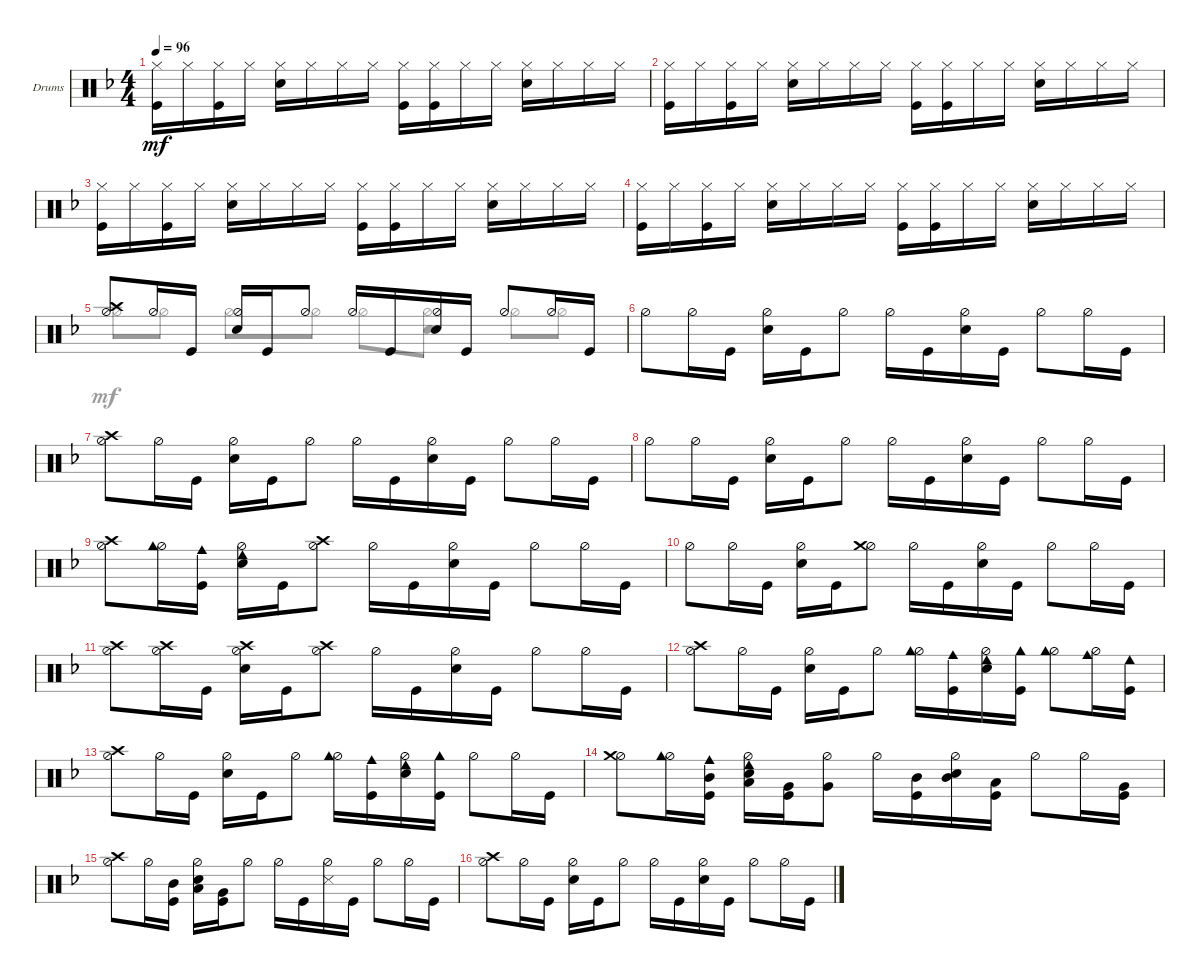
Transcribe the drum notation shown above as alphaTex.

\defaultSystemsLayout 4
\bracketExtendMode groupsimilarinstruments
\firstSystemTrackNameOrientation horizontal
\otherSystemsTrackNameOrientation horizontal
\track ("Drumkit" "Drums") {instrument percussion}
\staff {score}
\articulation defaults
\voice
\ts (4 4)
\tempo 96
\clef neutral
\scale
0.333333
\ks dminor
("Hi-Hat (closed)" "Kick (hit)").16{dy mf} "Hi-Hat (closed)".16 ("Hi-Hat (closed)" "Kick (hit)").16 "Hi-Hat (closed)".16 ("Hi-Hat (closed)" "Snare (hit) 2").16 "Hi-Hat (closed)".16 "Hi-Hat (closed)".16 "Hi-Hat (closed)".16 ("Kick (hit)" "Hi-Hat (closed)").16 ("Kick (hit)" "Hi-Hat (closed)").16 "Hi-Hat (closed)".16 "Hi-Hat (closed)".16 ("Hi-Hat (closed)" "Snare (hit) 2").16 "Hi-Hat (closed)".16 "Hi-Hat (closed)".16 "Hi-Hat (closed)".16 |
\scale
0.333333 ("Hi-Hat (closed)" "Kick (hit)").16 "Hi-Hat (closed)".16 ("Hi-Hat (closed)" "Kick (hit)").16 "Hi-Hat (closed)".16 ("Hi-Hat (closed)" "Snare (hit) 2").16 "Hi-Hat (closed)".16 "Hi-Hat (closed)".16 "Hi-Hat (closed)".16 ("Kick (hit)" "Hi-Hat (closed)").16 ("Kick (hit)" "Hi-Hat (closed)").16 "Hi-Hat (closed)".16 "Hi-Hat (closed)".16 ("Hi-Hat (closed)" "Snare (hit) 2").16 "Hi-Hat (closed)".16 "Hi-Hat (closed)".16 "Hi-Hat (closed)".16 |
\scale
0.333333 ("Hi-Hat (closed)" "Kick (hit)").16 "Hi-Hat (closed)".16 ("Hi-Hat (closed)" "Kick (hit)").16 "Hi-Hat (closed)".16 ("Hi-Hat (closed)" "Snare (hit) 2").16 "Hi-Hat (closed)".16 "Hi-Hat (closed)".16 "Hi-Hat (closed)".16 ("Kick (hit)" "Hi-Hat (closed)").16 ("Kick (hit)" "Hi-Hat (closed)").16 "Hi-Hat (closed)".16 "Hi-Hat (closed)".16 ("Hi-Hat (closed)" "Snare (hit) 2").16 "Hi-Hat (closed)".16 "Hi-Hat (closed)".16 "Hi-Hat (closed)".16 |
\scale
0.333333 ("Hi-Hat (closed)" "Kick (hit)").16 "Hi-Hat (closed)".16 ("Hi-Hat (closed)" "Kick (hit)").16 "Hi-Hat (closed)".16 ("Hi-Hat (closed)" "Snare (hit) 2").16 "Hi-Hat (closed)".16 "Hi-Hat (closed)".16 "Hi-Hat (closed)".16 ("Kick (hit)" "Hi-Hat (closed)").16 ("Kick (hit)" "Hi-Hat (closed)").16 "Hi-Hat (closed)".16 "Hi-Hat (closed)".16 ("Hi-Hat (closed)" "Snare (hit) 2").16 "Hi-Hat (closed)".16 "Hi-Hat (closed)".16 "Hi-Hat (closed)".16 |
\scale
0.333333 ("Hi-Hat (half)" "Crash high (hit)").8 "Hi-Hat (half)".16 "Kick (hit)".16 ("Snare (hit) 2" "Hi-Hat (half)").16 "Kick (hit)".16 "Hi-Hat (half)".8 "Hi-Hat (half)".16 "Kick (hit)".16 ("Snare (hit) 2" "Hi-Hat (half)").16 "Kick (hit)".16 "Hi-Hat (half)".8 "Hi-Hat (half)".16 "Kick (hit)".16 |
\scale
0.333333 "Hi-Hat (half)".8 "Hi-Hat (half)".16 "Kick (hit)".16 ("Snare (hit) 2" "Hi-Hat (half)").16 "Kick (hit)".16 "Hi-Hat (half)".8 "Hi-Hat (half)".16 "Kick (hit)".16 ("Snare (hit) 2" "Hi-Hat (half)").16 "Kick (hit)".16 "Hi-Hat (half)".8 "Hi-Hat (half)".16 "Kick (hit)".16 |
\scale
0.333333 ("Hi-Hat (half)" "Crash high (hit)").8 "Hi-Hat (half)".16 "Kick (hit)".16 ("Snare (hit) 2" "Hi-Hat (half)").16 "Kick (hit)".16 "Hi-Hat (half)".8 "Hi-Hat (half)".16 "Kick (hit)".16 ("Snare (hit) 2" "Hi-Hat (half)").16 "Kick (hit)".16 "Hi-Hat (half)".8 "Hi-Hat (half)".16 "Kick (hit)".16 |
\scale
0.333333 "Hi-Hat (half)".8 "Hi-Hat (half)".16 "Kick (hit)".16 ("Snare (hit) 2" "Hi-Hat (half)").16 "Kick (hit)".16 "Hi-Hat (half)".8 "Hi-Hat (half)".16 "Kick (hit)".16 ("Snare (hit) 2" "Hi-Hat (half)").16 "Kick (hit)".16 "Hi-Hat (half)".8 "Hi-Hat (half)".16 "Kick (hit)".16 |
\scale
0.333333 ("Hi-Hat (half)" "Crash high (hit)").8 ("Hi-Hat (half)" "Cowbell high (hit)").16 ("Kick (hit)" "Cowbell medium (hit)").16 ("Snare (hit) 2" "Hi-Hat (half)" "Cowbell low (hit)").16 "Kick (hit)".16 ("Hi-Hat (half)" "Crash high (hit)").8 "Hi-Hat (half)".16 "Kick (hit)".16 ("Snare (hit) 2" "Hi-Hat (half)").16 "Kick (hit)".16 "Hi-Hat (half)".8 "Hi-Hat (half)".16 "Kick (hit)".16 |
\scale
0.333333 "Hi-Hat (half)".8 "Hi-Hat (half)".16 "Kick (hit)".16 ("Snare (hit) 2" "Hi-Hat (half)").16 "Kick (hit)".16 ("Hi-Hat (half)" "Crash medium (hit)").8 "Hi-Hat (half)".16 "Kick (hit)".16 ("Snare (hit) 2" "Hi-Hat (half)").16 "Kick (hit)".16 "Hi-Hat (half)".8 "Hi-Hat (half)".16 "Kick (hit)".16 |
\scale
0.333333 ("Hi-Hat (half)" "Crash high (hit)").8 ("Hi-Hat (half)" "Crash high (hit)").16 "Kick (hit)".16 ("Snare (hit) 2" "Hi-Hat (half)" "Crash high (hit)").16 "Kick (hit)".16 ("Hi-Hat (half)" "Crash high (hit)").8 "Hi-Hat (half)".16 "Kick (hit)".16 ("Snare (hit) 2" "Hi-Hat (half)").16 "Kick (hit)".16 "Hi-Hat (half)".8 "Hi-Hat (half)".16 "Kick (hit)".16 |
\scale
0.333333 ("Hi-Hat (half)" "Crash high (hit)").8 "Hi-Hat (half)".16 "Kick (hit)".16 ("Snare (hit) 2" "Hi-Hat (half)").16 "Kick (hit)".16 "Hi-Hat (half)".8 ("Hi-Hat (half)" "Cowbell high (hit)").16 ("Kick (hit)" "Cowbell medium (hit)").16 ("Snare (hit) 2" "Hi-Hat (half)" "Cowbell low (hit)").16 ("Kick (hit)" "Cowbell high (hit)").16 ("Hi-Hat (half)" "Cowbell high (hit)").8 ("Hi-Hat (half)" "Cowbell medium (hit)").16 ("Kick (hit)" "Cowbell low (hit)").16 |
\scale
0.333333 ("Hi-Hat (half)" "Crash high (hit)").8 "Hi-Hat (half)".16 "Kick (hit)".16 ("Snare (hit) 2" "Hi-Hat (half)").16 "Kick (hit)".16 "Hi-Hat (half)".8 ("Hi-Hat (half)" "Cowbell high (hit)").16 ("Kick (hit)" "Cowbell medium (hit)").16 ("Snare (hit) 2" "Hi-Hat (half)" "Cowbell low (hit)").16 ("Kick (hit)" "Cowbell high (hit)").16 "Hi-Hat (half)".8 "Hi-Hat (half)".16 "Kick (hit)".16 |
\scale
0.333333 ("Hi-Hat (half)" "Crash medium (hit)").8 ("Hi-Hat (half)" "Cowbell high (hit)").16 ("Kick (hit)" "Cowbell medium (hit)" "Mid Tom (hit)").16 ("Snare (hit) 2" "Hi-Hat (half)" "Cowbell low (hit)" "Low Tom (hit)").16 ("Kick (hit)" "Very Low Tom (hit)").16 ("Hi-Hat (half)" "Very Low Tom (hit)").8 "Hi-Hat (half)".16 ("Kick (hit)" "Mid Tom (hit)").16 ("Snare (hit) 2" "Hi-Hat (half)" "Mid Tom (hit)").16 ("Kick (hit)" "Low Tom (hit)").16 "Hi-Hat (half)".8 "Hi-Hat (half)".16 ("Kick (hit)" "Very Low Tom (hit)").16 |
\scale
0.333333 ("Hi-Hat (half)" "Crash high (hit)").8 "Hi-Hat (half)".16 ("Kick (hit)" "Mid Tom (hit)").16 ("Snare (hit) 2" "Hi-Hat (half)" "Low Tom (hit)").16 ("Kick (hit)" "Very Low Tom (hit)").16 "Hi-Hat (half)".8 "Hi-Hat (half)".16 "Kick (hit)".16 ("Snare (side stick) 3" "Hi-Hat (half)").16 "Kick (hit)".16 "Hi-Hat (half)".8 "Hi-Hat (half)".16 "Kick (hit)".16 |
\scale
0.333333 ("Hi-Hat (half)" "Crash high (hit)").8 "Hi-Hat (half)".16 "Kick (hit)".16 ("Snare (hit) 2" "Hi-Hat (half)").16 "Kick (hit)".16 "Hi-Hat (half)".8 "Hi-Hat (half)".16 "Kick (hit)".16 ("Snare (hit) 2" "Hi-Hat (half)").16 "Kick (hit)".16 "Hi-Hat (half)".8 "Hi-Hat (half)".16 "Kick (hit)".16
\voice
\clef neutral
\ottava regular
\simile none
\scale
0.333333
\ks dminor
|
\scale
0.333333 |
\scale
0.333333 |
\scale
0.333333 |
\scale
0.333333 "Hi-Hat (half)".8 "Hi-Hat (half)".8 "Hi-Hat (half)".8 "Hi-Hat (half)".8 "Hi-Hat (half)".8 ("Hi-Hat (half)" "Snare (hit) 2").8 "Hi-Hat (half)".8 "Hi-Hat (half)".8 |
\scale
0.333333 |
\scale
0.333333 |
\scale
0.333333 |
\scale
0.333333 |
\scale
0.333333 |
\scale
0.333333 |
\scale
0.333333 |
\scale
0.333333 |
\scale
0.333333 |
\scale
0.333333 |
\scale
0.333333
